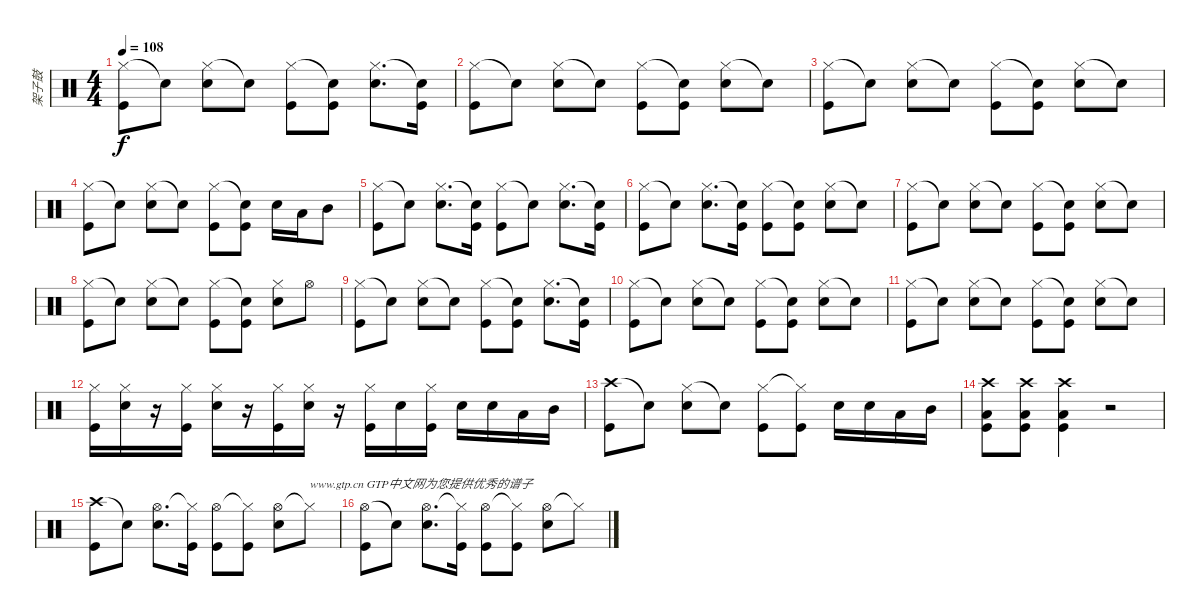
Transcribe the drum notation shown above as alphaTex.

\track ("架子鼓" "架子鼓") {instrument percussion}
\staff {score}
\articulation defaults
\ts (4 4)
\tempo 108
\clef neutral
\ks c
("Hi-Hat (closed)" "Kick (hit)").8{dy f} "Snare (hit)"{t}.8 ("Hi-Hat (closed)" "Snare (hit) 2").8 "Snare (hit)"{t}.8 ("Hi-Hat (closed)" "Kick (hit)").8 ("Snare (hit)"{t} "Kick (hit)").8 ("Hi-Hat (closed)" "Snare (hit) 2").8{d} ("Snare (hit)"{t} "Kick (hit)").16 |
("Hi-Hat (closed)" "Kick (hit)").8 "Snare (hit)"{t}.8 ("Hi-Hat (closed)" "Snare (hit) 2").8 "Snare (hit)"{t}.8 ("Hi-Hat (closed)" "Kick (hit)").8 ("Snare (hit)"{t} "Kick (hit)").8 ("Hi-Hat (closed)" "Snare (hit) 2").8 "Snare (hit)"{t}.8 |
("Hi-Hat (closed)" "Kick (hit)").8 "Snare (hit)"{t}.8 ("Hi-Hat (closed)" "Snare (hit) 2").8 "Snare (hit)"{t}.8 ("Hi-Hat (closed)" "Kick (hit)").8 ("Snare (hit)"{t} "Kick (hit)").8 ("Hi-Hat (closed)" "Snare (hit) 2").8 "Snare (hit)"{t}.8 |
("Hi-Hat (closed)" "Kick (hit)").8 "Snare (hit)"{t}.8 ("Hi-Hat (closed)" "Snare (hit) 2").8 "Snare (hit)"{t}.8 ("Hi-Hat (closed)" "Kick (hit)").8 ("Snare (hit)"{t} "Kick (hit)").8 "Snare (hit) 2".16 "Low Tom (hit)".16 "Mid Tom (hit)".8 |
("Hi-Hat (closed)" "Kick (hit)").8 "Snare (hit)"{t}.8 ("Hi-Hat (closed)" "Snare (hit) 2").8{d} ("Snare (hit)"{t} "Kick (hit)").16 ("Hi-Hat (closed)" "Kick (hit)").8 "Snare (hit)"{t}.8 ("Hi-Hat (closed)" "Snare (hit) 2").8{d} ("Snare (hit)"{t} "Kick (hit)").16 |
("Hi-Hat (closed)" "Kick (hit)").8 "Snare (hit)"{t}.8 ("Hi-Hat (closed)" "Snare (hit) 2").8{d} ("Snare (hit)"{t} "Kick (hit)").16 ("Hi-Hat (closed)" "Kick (hit)").8 ("Snare (hit)"{t} "Kick (hit)").8 ("Hi-Hat (closed)" "Snare (hit) 2").8 "Snare (hit)"{t}.8 |
("Hi-Hat (closed)" "Kick (hit)").8 "Snare (hit)"{t}.8 ("Hi-Hat (closed)" "Snare (hit) 2").8 "Snare (hit)"{t}.8 ("Hi-Hat (closed)" "Kick (hit)").8 ("Snare (hit)"{t} "Kick (hit)").8 ("Hi-Hat (closed)" "Snare (hit) 2").8 "Snare (hit)"{t}.8 |
("Hi-Hat (closed)" "Kick (hit)").8 "Snare (hit)"{t}.8 ("Hi-Hat (closed)" "Snare (hit) 2").8 "Snare (hit)"{t}.8 ("Hi-Hat (closed)" "Kick (hit)").8 ("Snare (hit)"{t} "Kick (hit)").8 ("Hi-Hat (closed)" "Snare (hit) 2").8 "Hi-Hat (open)".8 |
("Hi-Hat (closed)" "Kick (hit)").8 "Snare (hit)"{t}.8 ("Hi-Hat (closed)" "Snare (hit) 2").8 "Snare (hit)"{t}.8 ("Hi-Hat (closed)" "Kick (hit)").8 ("Snare (hit)"{t} "Kick (hit)").8 ("Hi-Hat (closed)" "Snare (hit) 2").8{d} ("Snare (hit)"{t} "Kick (hit)").16 |
("Hi-Hat (closed)" "Kick (hit)").8 "Snare (hit)"{t}.8 ("Hi-Hat (closed)" "Snare (hit) 2").8 "Snare (hit)"{t}.8 ("Hi-Hat (closed)" "Kick (hit)").8 ("Snare (hit)"{t} "Kick (hit)").8 ("Hi-Hat (closed)" "Snare (hit) 2").8 "Snare (hit)"{t}.8 |
("Hi-Hat (closed)" "Kick (hit)").8 "Snare (hit)"{t}.8 ("Hi-Hat (closed)" "Snare (hit) 2").8 "Snare (hit)"{t}.8 ("Hi-Hat (closed)" "Kick (hit)").8 ("Snare (hit)"{t} "Kick (hit)").8 ("Hi-Hat (closed)" "Snare (hit) 2").8 "Snare (hit)"{t}.8 |
("Hi-Hat (closed)" "Kick (hit)").16 ("Hi-Hat (closed)" "Snare (hit) 2").16 r.16 ("Hi-Hat (closed)" "Kick (hit)").16 ("Hi-Hat (closed)" "Snare (hit) 2").16 r.16 ("Hi-Hat (closed)" "Kick (hit)").16 ("Hi-Hat (closed)" "Snare (hit) 2").16 r.16 ("Hi-Hat (closed)" "Kick (hit)").16 "Snare (hit) 2".16 ("Hi-Hat (closed)" "Kick (hit)").16 "Snare (hit) 2".16 "Snare (hit) 2".16 "Low Tom (hit)".16 "Mid Tom (hit)".16 |
("Crash high (hit)" "Kick (hit)").8 "Snare (hit)"{t}.8 ("Hi-Hat (closed)" "Snare (hit) 2").8 "Snare (hit)"{t}.8 ("Hi-Hat (closed)" "Kick (hit)").8 ("Hi-Hat (closed)"{t} "Kick (hit)").8 "Snare (hit) 2".16 "Snare (hit) 2".16 "Low Tom (hit)".16 "Mid Tom (hit)".16 |
("Crash high (hit)" "Low Tom (hit)" "Kick (hit)").8 ("Crash high (hit)" "Low Tom (hit)" "Kick (hit)").8 ("Crash high (hit)" "Low Tom (hit)" "Kick (hit)").4 r.2 |
("Crash high (hit)" "Kick (hit)").8 "Snare (hit)"{t}.8 ("Hi-Hat (open)" "Snare (hit) 2").8{d} ("Hi-Hat (closed)"{t} "Kick (hit)").16 ("Hi-Hat (open)" "Kick (hit)").8 ("Hi-Hat (closed)"{t} "Kick (hit)").8 ("Hi-Hat (open)" "Snare (hit) 2").8 "Hi-Hat (closed)"{t}.8{txt "www.gtp.cn GTP中文网为您提供优秀的谱子"} |
("Hi-Hat (open)" "Kick (hit)").8 "Snare (hit)"{t}.8 ("Hi-Hat (open)" "Snare (hit) 2").8{d} ("Hi-Hat (closed)"{t} "Kick (hit)").16 ("Hi-Hat (open)" "Kick (hit)").8 ("Hi-Hat (closed)"{t} "Kick (hit)").8 ("Hi-Hat (open)" "Snare (hit) 2").8 "Hi-Hat (closed)"{t}.8
